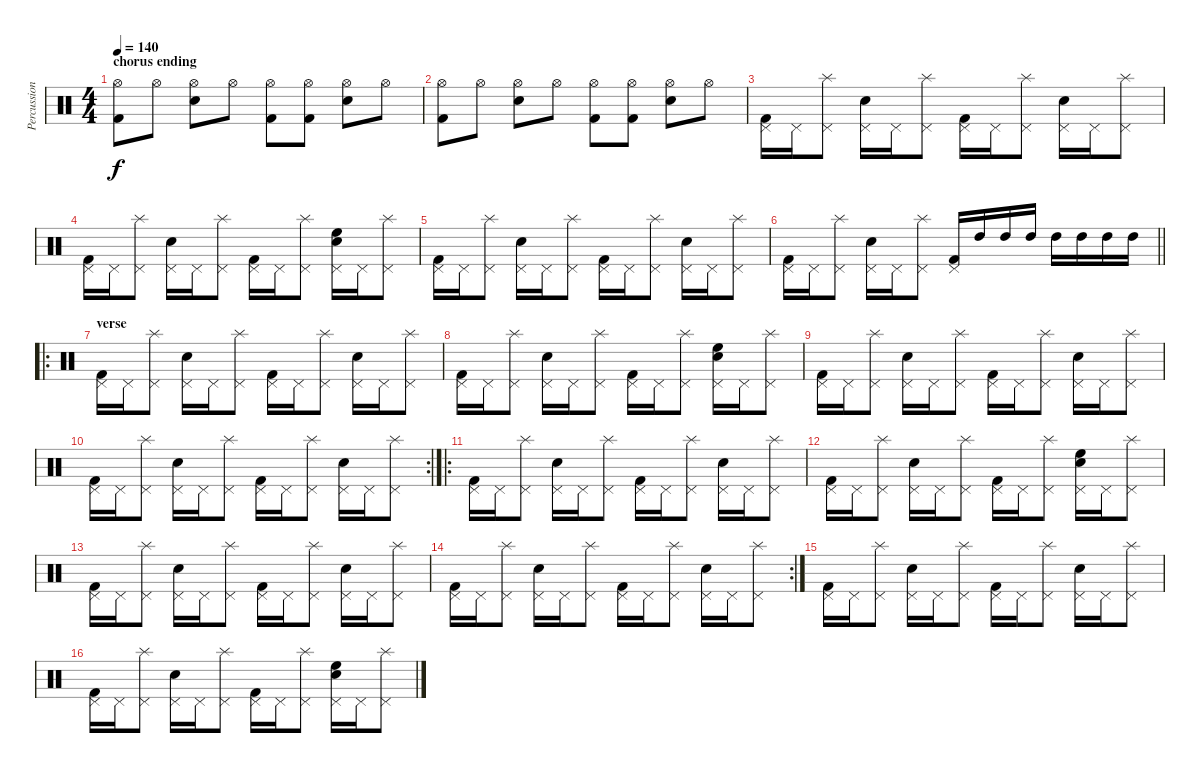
\track ("Percussion" "Percussion") {instrument percussion}
\staff {score}
\articulation defaults
\ts (4 4)
\section ("" "chorus ending")
\tempo 140
\clef neutral
\ks c
("Kick (hit) 2" "Hi-Hat (open)").8{dy f} "Hi-Hat (open)".8 ("Snare (hit) 2" "Hi-Hat (open)").8 "Hi-Hat (open)".8 ("Kick (hit) 2" "Hi-Hat (open)").8 ("Kick (hit) 2" "Hi-Hat (open)").8 ("Snare (hit) 2" "Hi-Hat (open)").8 "Hi-Hat (open)".8 |
("Kick (hit) 2" "Hi-Hat (open)").8 "Hi-Hat (open)".8 ("Snare (hit) 2" "Hi-Hat (open)").8 "Hi-Hat (open)".8 ("Kick (hit) 2" "Hi-Hat (open)").8 ("Kick (hit) 2" "Hi-Hat (open)").8 ("Snare (hit) 2" "Hi-Hat (open)").8 "Hi-Hat (open)".8 |
("Kick (hit) 2" "Pedal Hi-Hat (hit)").16 "Pedal Hi-Hat (hit)".16 ("Pedal Hi-Hat (hit)" "Splash (hit)").8 ("Snare (hit) 2" "Pedal Hi-Hat (hit)").16 "Pedal Hi-Hat (hit)".16 ("Pedal Hi-Hat (hit)" "Splash (hit)").8 ("Kick (hit) 2" "Pedal Hi-Hat (hit)").16 "Pedal Hi-Hat (hit)".16 ("Pedal Hi-Hat (hit)" "Splash (hit)").8 ("Snare (hit) 2" "Pedal Hi-Hat (hit)").16 "Pedal Hi-Hat (hit)".16 ("Pedal Hi-Hat (hit)" "Splash (hit)").8 |
("Kick (hit) 2" "Pedal Hi-Hat (hit)").16 "Pedal Hi-Hat (hit)".16 ("Pedal Hi-Hat (hit)" "Splash (hit)").8 ("Snare (hit) 2" "Pedal Hi-Hat (hit)").16 "Pedal Hi-Hat (hit)".16 ("Pedal Hi-Hat (hit)" "Splash (hit)").8 ("Kick (hit) 2" "Pedal Hi-Hat (hit)").16 "Pedal Hi-Hat (hit)".16 ("Pedal Hi-Hat (hit)" "Splash (hit)").8 ("Snare (hit) 2" "High Floor Tom (hit)" "Pedal Hi-Hat (hit)").16 "Pedal Hi-Hat (hit)".16 ("Pedal Hi-Hat (hit)" "Splash (hit)").8 |
("Kick (hit) 2" "Pedal Hi-Hat (hit)").16 "Pedal Hi-Hat (hit)".16 ("Pedal Hi-Hat (hit)" "Splash (hit)").8 ("Snare (hit) 2" "Pedal Hi-Hat (hit)").16 "Pedal Hi-Hat (hit)".16 ("Pedal Hi-Hat (hit)" "Splash (hit)").8 ("Kick (hit) 2" "Pedal Hi-Hat (hit)").16 "Pedal Hi-Hat (hit)".16 ("Pedal Hi-Hat (hit)" "Splash (hit)").8 ("Snare (hit) 2" "Pedal Hi-Hat (hit)").16 "Pedal Hi-Hat (hit)".16 ("Pedal Hi-Hat (hit)" "Splash (hit)").8 |
\barLineRight lightlight
("Kick (hit) 2" "Pedal Hi-Hat (hit)").16 "Pedal Hi-Hat (hit)".16 ("Pedal Hi-Hat (hit)" "Splash (hit)").8 ("Snare (hit) 2" "Pedal Hi-Hat (hit)").16 "Pedal Hi-Hat (hit)".16 ("Pedal Hi-Hat (hit)" "Splash (hit)").8 ("Kick (hit) 2" "Pedal Hi-Hat (hit)").16 "High Tom (hit)".16 "High Tom (hit)".16 "High Tom (hit)".16 "High Tom (hit)".16 "High Tom (hit)".16 "High Tom (hit)".16 "High Tom (hit)".16 |
\ro
\section ("" "verse")
("Kick (hit) 2" "Pedal Hi-Hat (hit)").16 "Pedal Hi-Hat (hit)".16 ("Pedal Hi-Hat (hit)" "Splash (hit)").8 ("Snare (hit) 2" "Pedal Hi-Hat (hit)").16 "Pedal Hi-Hat (hit)".16 ("Pedal Hi-Hat (hit)" "Splash (hit)").8 ("Kick (hit) 2" "Pedal Hi-Hat (hit)").16 "Pedal Hi-Hat (hit)".16 ("Pedal Hi-Hat (hit)" "Splash (hit)").8 ("Snare (hit) 2" "Pedal Hi-Hat (hit)").16 "Pedal Hi-Hat (hit)".16 ("Pedal Hi-Hat (hit)" "Splash (hit)").8 |
("Kick (hit) 2" "Pedal Hi-Hat (hit)").16 "Pedal Hi-Hat (hit)".16 ("Pedal Hi-Hat (hit)" "Splash (hit)").8 ("Snare (hit) 2" "Pedal Hi-Hat (hit)").16 "Pedal Hi-Hat (hit)".16 ("Pedal Hi-Hat (hit)" "Splash (hit)").8 ("Kick (hit) 2" "Pedal Hi-Hat (hit)").16 "Pedal Hi-Hat (hit)".16 ("Pedal Hi-Hat (hit)" "Splash (hit)").8 ("Snare (hit) 2" "High Floor Tom (hit)" "Pedal Hi-Hat (hit)").16 "Pedal Hi-Hat (hit)".16 ("Pedal Hi-Hat (hit)" "Splash (hit)").8 |
("Kick (hit) 2" "Pedal Hi-Hat (hit)").16 "Pedal Hi-Hat (hit)".16 ("Pedal Hi-Hat (hit)" "Splash (hit)").8 ("Snare (hit) 2" "Pedal Hi-Hat (hit)").16 "Pedal Hi-Hat (hit)".16 ("Pedal Hi-Hat (hit)" "Splash (hit)").8 ("Kick (hit) 2" "Pedal Hi-Hat (hit)").16 "Pedal Hi-Hat (hit)".16 ("Pedal Hi-Hat (hit)" "Splash (hit)").8 ("Snare (hit) 2" "Pedal Hi-Hat (hit)").16 "Pedal Hi-Hat (hit)".16 ("Pedal Hi-Hat (hit)" "Splash (hit)").8 |
\rc 2
("Kick (hit) 2" "Pedal Hi-Hat (hit)").16 "Pedal Hi-Hat (hit)".16 ("Pedal Hi-Hat (hit)" "Splash (hit)").8 ("Snare (hit) 2" "Pedal Hi-Hat (hit)").16 "Pedal Hi-Hat (hit)".16 ("Pedal Hi-Hat (hit)" "Splash (hit)").8 ("Kick (hit) 2" "Pedal Hi-Hat (hit)").16 "Pedal Hi-Hat (hit)".16 ("Pedal Hi-Hat (hit)" "Splash (hit)").8 ("Snare (hit) 2" "Pedal Hi-Hat (hit)").16 "Pedal Hi-Hat (hit)".16 ("Pedal Hi-Hat (hit)" "Splash (hit)").8 |
\ro
("Kick (hit) 2" "Pedal Hi-Hat (hit)").16 "Pedal Hi-Hat (hit)".16 ("Pedal Hi-Hat (hit)" "Splash (hit)").8 ("Snare (hit) 2" "Pedal Hi-Hat (hit)").16 "Pedal Hi-Hat (hit)".16 ("Pedal Hi-Hat (hit)" "Splash (hit)").8 ("Kick (hit) 2" "Pedal Hi-Hat (hit)").16 "Pedal Hi-Hat (hit)".16 ("Pedal Hi-Hat (hit)" "Splash (hit)").8 ("Snare (hit) 2" "Pedal Hi-Hat (hit)").16 "Pedal Hi-Hat (hit)".16 ("Pedal Hi-Hat (hit)" "Splash (hit)").8 |
("Kick (hit) 2" "Pedal Hi-Hat (hit)").16 "Pedal Hi-Hat (hit)".16 ("Pedal Hi-Hat (hit)" "Splash (hit)").8 ("Snare (hit) 2" "Pedal Hi-Hat (hit)").16 "Pedal Hi-Hat (hit)".16 ("Pedal Hi-Hat (hit)" "Splash (hit)").8 ("Kick (hit) 2" "Pedal Hi-Hat (hit)").16 "Pedal Hi-Hat (hit)".16 ("Pedal Hi-Hat (hit)" "Splash (hit)").8 ("Snare (hit) 2" "High Floor Tom (hit)" "Pedal Hi-Hat (hit)").16 "Pedal Hi-Hat (hit)".16 ("Pedal Hi-Hat (hit)" "Splash (hit)").8 |
("Kick (hit) 2" "Pedal Hi-Hat (hit)").16 "Pedal Hi-Hat (hit)".16 ("Pedal Hi-Hat (hit)" "Splash (hit)").8 ("Snare (hit) 2" "Pedal Hi-Hat (hit)").16 "Pedal Hi-Hat (hit)".16 ("Pedal Hi-Hat (hit)" "Splash (hit)").8 ("Kick (hit) 2" "Pedal Hi-Hat (hit)").16 "Pedal Hi-Hat (hit)".16 ("Pedal Hi-Hat (hit)" "Splash (hit)").8 ("Snare (hit) 2" "Pedal Hi-Hat (hit)").16 "Pedal Hi-Hat (hit)".16 ("Pedal Hi-Hat (hit)" "Splash (hit)").8 |
\rc 2
("Kick (hit) 2" "Pedal Hi-Hat (hit)").16 "Pedal Hi-Hat (hit)".16 ("Pedal Hi-Hat (hit)" "Splash (hit)").8 ("Snare (hit) 2" "Pedal Hi-Hat (hit)").16 "Pedal Hi-Hat (hit)".16 ("Pedal Hi-Hat (hit)" "Splash (hit)").8 ("Kick (hit) 2" "Pedal Hi-Hat (hit)").16 "Pedal Hi-Hat (hit)".16 ("Pedal Hi-Hat (hit)" "Splash (hit)").8 ("Snare (hit) 2" "Pedal Hi-Hat (hit)").16 "Pedal Hi-Hat (hit)".16 ("Pedal Hi-Hat (hit)" "Splash (hit)").8 |
("Kick (hit) 2" "Pedal Hi-Hat (hit)").16 "Pedal Hi-Hat (hit)".16 ("Pedal Hi-Hat (hit)" "Splash (hit)").8 ("Snare (hit) 2" "Pedal Hi-Hat (hit)").16 "Pedal Hi-Hat (hit)".16 ("Pedal Hi-Hat (hit)" "Splash (hit)").8 ("Kick (hit) 2" "Pedal Hi-Hat (hit)").16 "Pedal Hi-Hat (hit)".16 ("Pedal Hi-Hat (hit)" "Splash (hit)").8 ("Snare (hit) 2" "Pedal Hi-Hat (hit)").16 "Pedal Hi-Hat (hit)".16 ("Pedal Hi-Hat (hit)" "Splash (hit)").8 |
("Kick (hit) 2" "Pedal Hi-Hat (hit)").16 "Pedal Hi-Hat (hit)".16 ("Pedal Hi-Hat (hit)" "Splash (hit)").8 ("Snare (hit) 2" "Pedal Hi-Hat (hit)").16 "Pedal Hi-Hat (hit)".16 ("Pedal Hi-Hat (hit)" "Splash (hit)").8 ("Kick (hit) 2" "Pedal Hi-Hat (hit)").16 "Pedal Hi-Hat (hit)".16 ("Pedal Hi-Hat (hit)" "Splash (hit)").8 ("Snare (hit) 2" "High Floor Tom (hit)" "Pedal Hi-Hat (hit)").16 "Pedal Hi-Hat (hit)".16 ("Pedal Hi-Hat (hit)" "Splash (hit)").8
